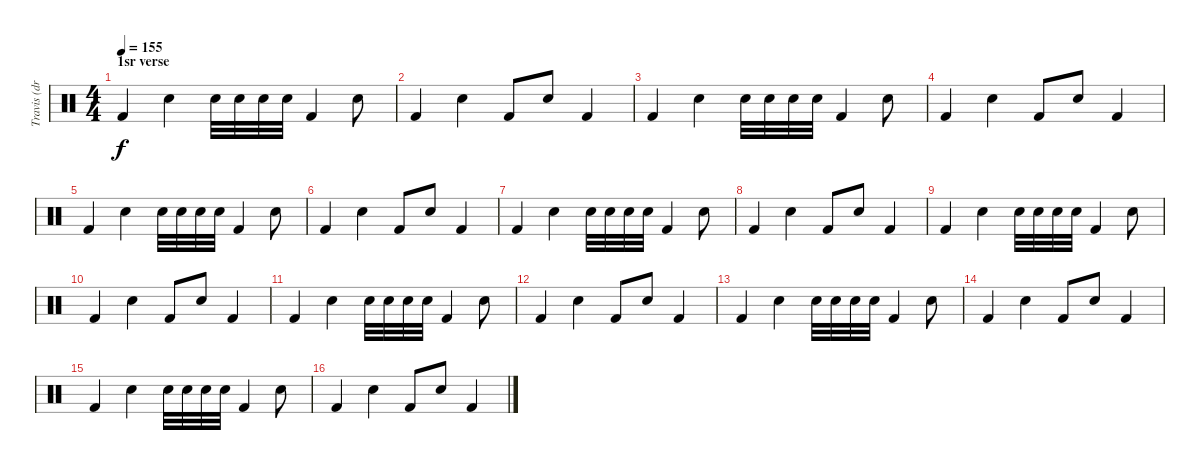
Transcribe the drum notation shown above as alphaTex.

\track ("Travis (drums)" "Travis (dr") {instrument percussion}
\staff {score}
\articulation defaults
\ts (4 4)
\section ("" "1sr verse")
\tempo 155
\clef neutral
\ks c "Kick (hit) 2".4{dy f} "Snare (hit) 2".4 "Snare (hit) 2".32 "Snare (hit) 2".32 "Snare (hit) 2".32 "Snare (hit) 2".32 "Kick (hit) 2".4 "Snare (hit) 2".8
|
"Kick (hit) 2".4 "Snare (hit) 2".4 "Kick (hit) 2".8 "Snare (hit) 2".8 "Kick (hit) 2".4 |
"Kick (hit) 2".4 "Snare (hit) 2".4 "Snare (hit) 2".32 "Snare (hit) 2".32 "Snare (hit) 2".32 "Snare (hit) 2".32 "Kick (hit) 2".4 "Snare (hit) 2".8 |
"Kick (hit) 2".4 "Snare (hit) 2".4 "Kick (hit) 2".8 "Snare (hit) 2".8 "Kick (hit) 2".4 |
"Kick (hit) 2".4 "Snare (hit) 2".4 "Snare (hit) 2".32 "Snare (hit) 2".32 "Snare (hit) 2".32 "Snare (hit) 2".32 "Kick (hit) 2".4 "Snare (hit) 2".8 |
"Kick (hit) 2".4 "Snare (hit) 2".4 "Kick (hit) 2".8 "Snare (hit) 2".8 "Kick (hit) 2".4 |
"Kick (hit) 2".4 "Snare (hit) 2".4 "Snare (hit) 2".32 "Snare (hit) 2".32 "Snare (hit) 2".32 "Snare (hit) 2".32 "Kick (hit) 2".4 "Snare (hit) 2".8 |
"Kick (hit) 2".4 "Snare (hit) 2".4 "Kick (hit) 2".8 "Snare (hit) 2".8 "Kick (hit) 2".4 |
"Kick (hit) 2".4 "Snare (hit) 2".4 "Snare (hit) 2".32 "Snare (hit) 2".32 "Snare (hit) 2".32 "Snare (hit) 2".32 "Kick (hit) 2".4 "Snare (hit) 2".8 |
"Kick (hit) 2".4 "Snare (hit) 2".4 "Kick (hit) 2".8 "Snare (hit) 2".8 "Kick (hit) 2".4 |
"Kick (hit) 2".4 "Snare (hit) 2".4 "Snare (hit) 2".32 "Snare (hit) 2".32 "Snare (hit) 2".32 "Snare (hit) 2".32 "Kick (hit) 2".4 "Snare (hit) 2".8 |
"Kick (hit) 2".4 "Snare (hit) 2".4 "Kick (hit) 2".8 "Snare (hit) 2".8 "Kick (hit) 2".4 |
"Kick (hit) 2".4 "Snare (hit) 2".4 "Snare (hit) 2".32 "Snare (hit) 2".32 "Snare (hit) 2".32 "Snare (hit) 2".32 "Kick (hit) 2".4 "Snare (hit) 2".8 |
"Kick (hit) 2".4 "Snare (hit) 2".4 "Kick (hit) 2".8 "Snare (hit) 2".8 "Kick (hit) 2".4 |
"Kick (hit) 2".4 "Snare (hit) 2".4 "Snare (hit) 2".32 "Snare (hit) 2".32 "Snare (hit) 2".32 "Snare (hit) 2".32 "Kick (hit) 2".4 "Snare (hit) 2".8 |
"Kick (hit) 2".4 "Snare (hit) 2".4 "Kick (hit) 2".8 "Snare (hit) 2".8 "Kick (hit) 2".4
